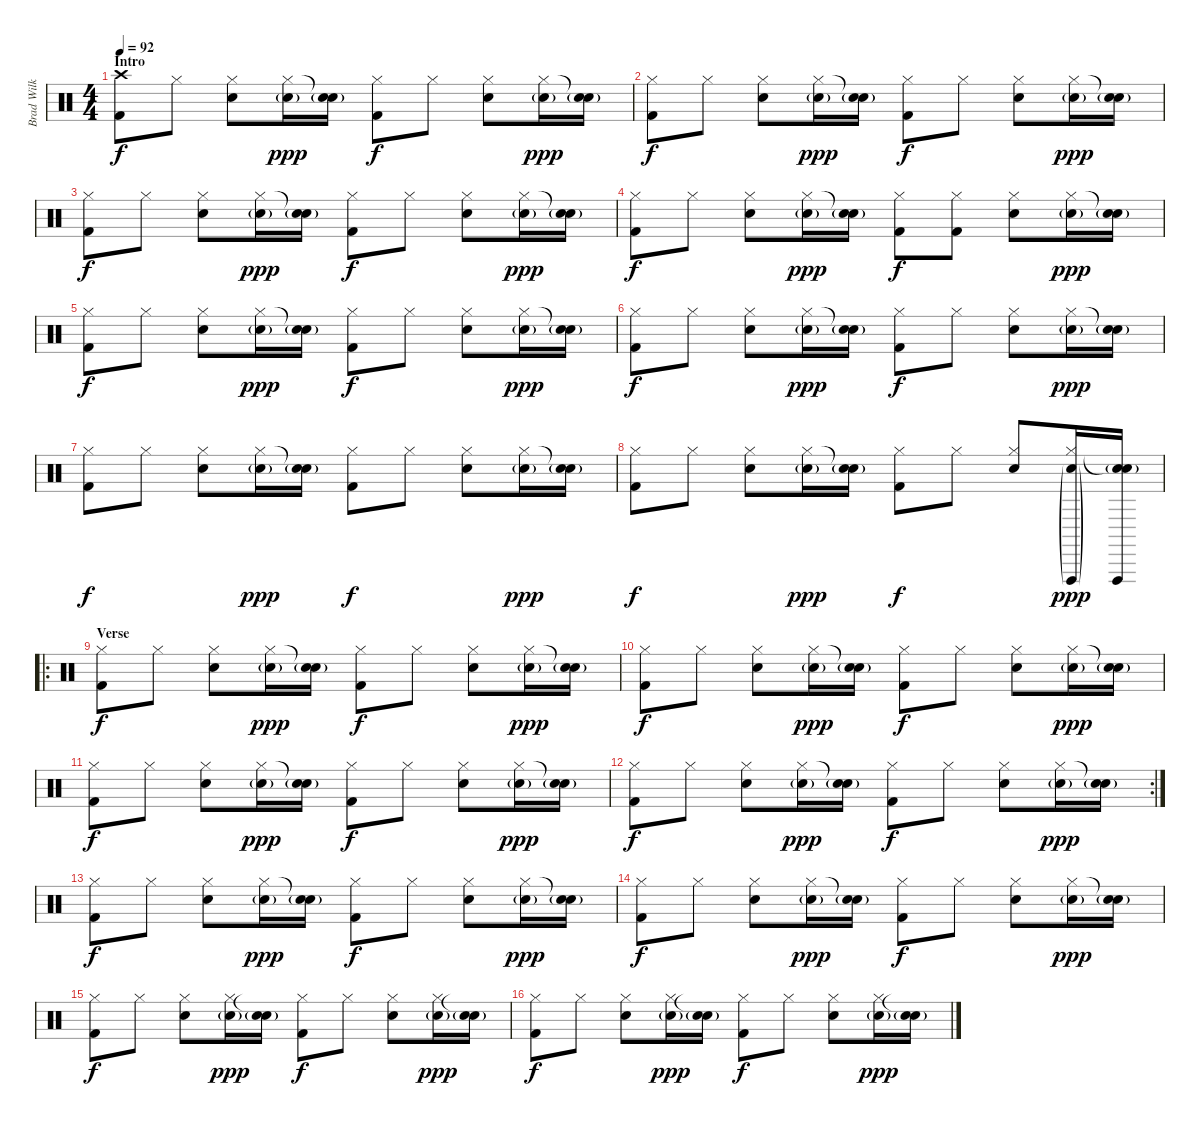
\track ("Brad Wilk" "Brad Wilk") {instrument percussion}
\staff {score}
\articulation defaults
\ts (4 4)
\section ("" "Intro")
\tempo 92
\clef neutral
\ks c
("Crash high (hit)" "Kick (hit) 2").8{dy f} "Hi-Hat (closed)".8 ("Hi-Hat (closed)" "Electric Snare (hit)").8 ("Hi-Hat (closed)" "Electric Snare (hit)"{g}).16{dy ppp} ("Snare (hit)"{t} "Electric Snare (hit)"{g}).16 ("Hi-Hat (closed)" "Kick (hit) 2").8{dy f} "Hi-Hat (closed)".8 ("Hi-Hat (closed)" "Electric Snare (hit)").8 ("Hi-Hat (closed)" "Electric Snare (hit)"{g}).16{dy ppp} ("Snare (hit)"{t} "Electric Snare (hit)"{g}).16 |
("Hi-Hat (closed)" "Kick (hit) 2").8{dy f} "Hi-Hat (closed)".8 ("Hi-Hat (closed)" "Electric Snare (hit)").8 ("Hi-Hat (closed)" "Electric Snare (hit)"{g}).16{dy ppp} ("Snare (hit)"{t} "Electric Snare (hit)"{g}).16 ("Hi-Hat (closed)" "Kick (hit) 2").8{dy f} "Hi-Hat (closed)".8 ("Hi-Hat (closed)" "Electric Snare (hit)").8 ("Hi-Hat (closed)" "Electric Snare (hit)"{g}).16{dy ppp} ("Snare (hit)"{t} "Electric Snare (hit)"{g}).16 |
("Hi-Hat (closed)" "Kick (hit) 2").8{dy f} "Hi-Hat (closed)".8 ("Hi-Hat (closed)" "Electric Snare (hit)").8 ("Hi-Hat (closed)" "Electric Snare (hit)"{g}).16{dy ppp} ("Snare (hit)"{t} "Electric Snare (hit)"{g}).16 ("Hi-Hat (closed)" "Kick (hit) 2").8{dy f} "Hi-Hat (closed)".8 ("Hi-Hat (closed)" "Electric Snare (hit)").8 ("Hi-Hat (closed)" "Electric Snare (hit)"{g}).16{dy ppp} ("Snare (hit)"{t} "Electric Snare (hit)"{g}).16 |
("Hi-Hat (closed)" "Kick (hit) 2").8{dy f} "Hi-Hat (closed)".8 ("Hi-Hat (closed)" "Electric Snare (hit)").8 ("Hi-Hat (closed)" "Electric Snare (hit)"{g}).16{dy ppp} ("Snare (hit)"{t} "Electric Snare (hit)"{g}).16 ("Hi-Hat (closed)" "Kick (hit) 2").8{dy f} ("Hi-Hat (closed)" "Kick (hit) 2").8 ("Hi-Hat (closed)" "Electric Snare (hit)").8 ("Hi-Hat (closed)" "Electric Snare (hit)"{g}).16{dy ppp} ("Snare (hit)"{t} "Electric Snare (hit)"{g}).16 |
("Hi-Hat (closed)" "Kick (hit) 2").8{dy f} "Hi-Hat (closed)".8 ("Hi-Hat (closed)" "Electric Snare (hit)").8 ("Hi-Hat (closed)" "Electric Snare (hit)"{g}).16{dy ppp} ("Snare (hit)"{t} "Electric Snare (hit)"{g}).16 ("Hi-Hat (closed)" "Kick (hit) 2").8{dy f} "Hi-Hat (closed)".8 ("Hi-Hat (closed)" "Electric Snare (hit)").8 ("Hi-Hat (closed)" "Electric Snare (hit)"{g}).16{dy ppp} ("Snare (hit)"{t} "Electric Snare (hit)"{g}).16 |
("Hi-Hat (closed)" "Kick (hit) 2").8{dy f} "Hi-Hat (closed)".8 ("Hi-Hat (closed)" "Electric Snare (hit)").8 ("Hi-Hat (closed)" "Electric Snare (hit)"{g}).16{dy ppp} ("Snare (hit)"{t} "Electric Snare (hit)"{g}).16 ("Hi-Hat (closed)" "Kick (hit) 2").8{dy f} "Hi-Hat (closed)".8 ("Hi-Hat (closed)" "Electric Snare (hit)").8 ("Hi-Hat (closed)" "Electric Snare (hit)"{g}).16{dy ppp} ("Snare (hit)"{t} "Electric Snare (hit)"{g}).16 |
("Hi-Hat (closed)" "Kick (hit) 2").8{dy f} "Hi-Hat (closed)".8 ("Hi-Hat (closed)" "Electric Snare (hit)").8 ("Hi-Hat (closed)" "Electric Snare (hit)"{g}).16{dy ppp} ("Snare (hit)"{t} "Electric Snare (hit)"{g}).16 ("Hi-Hat (closed)" "Kick (hit) 2").8{dy f} "Hi-Hat (closed)".8 ("Hi-Hat (closed)" "Electric Snare (hit)").8 ("Hi-Hat (closed)" "Electric Snare (hit)"{g}).16{dy ppp} ("Snare (hit)"{t} "Electric Snare (hit)"{g}).16 |
("Hi-Hat (closed)" "Kick (hit) 2").8{dy f} "Hi-Hat (closed)".8 ("Hi-Hat (closed)" "Electric Snare (hit)").8 ("Hi-Hat (closed)" "Electric Snare (hit)"{g}).16{dy ppp} ("Snare (hit)"{t} "Electric Snare (hit)"{g}).16 ("Hi-Hat (closed)" "Kick (hit) 2").8{dy f} "Hi-Hat (closed)".8 ("Hi-Hat (closed)" "Electric Snare (hit)").8 ("Hi-Hat (closed)" "Vibraslap (hit)"{g} "Electric Snare (hit)"{g}).16{dy ppp} ("Snare (hit)"{t} "Vibraslap (hit)" "Electric Snare (hit)"{g}).16 |
\ro
\section ("" "Verse")
("Hi-Hat (closed)" "Kick (hit) 2").8{dy f} "Hi-Hat (closed)".8 ("Hi-Hat (closed)" "Electric Snare (hit)").8 ("Hi-Hat (closed)" "Electric Snare (hit)"{g}).16{dy ppp} ("Snare (hit)"{t} "Electric Snare (hit)"{g}).16 ("Hi-Hat (closed)" "Kick (hit) 2").8{dy f} "Hi-Hat (closed)".8 ("Hi-Hat (closed)" "Electric Snare (hit)").8 ("Hi-Hat (closed)" "Electric Snare (hit)"{g}).16{dy ppp} ("Snare (hit)"{t} "Electric Snare (hit)"{g}).16 |
("Hi-Hat (closed)" "Kick (hit) 2").8{dy f} "Hi-Hat (closed)".8 ("Hi-Hat (closed)" "Electric Snare (hit)").8 ("Hi-Hat (closed)" "Electric Snare (hit)"{g}).16{dy ppp} ("Snare (hit)"{t} "Electric Snare (hit)"{g}).16 ("Hi-Hat (closed)" "Kick (hit) 2").8{dy f} "Hi-Hat (closed)".8 ("Hi-Hat (closed)" "Electric Snare (hit)").8 ("Hi-Hat (closed)" "Electric Snare (hit)"{g}).16{dy ppp} ("Snare (hit)"{t} "Electric Snare (hit)"{g}).16 |
("Hi-Hat (closed)" "Kick (hit) 2").8{dy f} "Hi-Hat (closed)".8 ("Hi-Hat (closed)" "Electric Snare (hit)").8 ("Hi-Hat (closed)" "Electric Snare (hit)"{g}).16{dy ppp} ("Snare (hit)"{t} "Electric Snare (hit)"{g}).16 ("Hi-Hat (closed)" "Kick (hit) 2").8{dy f} "Hi-Hat (closed)".8 ("Hi-Hat (closed)" "Electric Snare (hit)").8 ("Hi-Hat (closed)" "Electric Snare (hit)"{g}).16{dy ppp} ("Snare (hit)"{t} "Electric Snare (hit)"{g}).16 |
\rc 2
("Hi-Hat (closed)" "Kick (hit) 2").8{dy f} "Hi-Hat (closed)".8 ("Hi-Hat (closed)" "Electric Snare (hit)").8 ("Hi-Hat (closed)" "Electric Snare (hit)"{g}).16{dy ppp} ("Snare (hit)"{t} "Electric Snare (hit)"{g}).16 ("Hi-Hat (closed)" "Kick (hit) 2").8{dy f} "Hi-Hat (closed)".8 ("Hi-Hat (closed)" "Electric Snare (hit)").8 ("Hi-Hat (closed)" "Electric Snare (hit)"{g}).16{dy ppp} ("Snare (hit)"{t} "Electric Snare (hit)"{g}).16 |
("Hi-Hat (closed)" "Kick (hit) 2").8{dy f} "Hi-Hat (closed)".8 ("Hi-Hat (closed)" "Electric Snare (hit)").8 ("Hi-Hat (closed)" "Electric Snare (hit)"{g}).16{dy ppp} ("Snare (hit)"{t} "Electric Snare (hit)"{g}).16 ("Hi-Hat (closed)" "Kick (hit) 2").8{dy f} "Hi-Hat (closed)".8 ("Hi-Hat (closed)" "Electric Snare (hit)").8 ("Hi-Hat (closed)" "Electric Snare (hit)"{g}).16{dy ppp} ("Snare (hit)"{t} "Electric Snare (hit)"{g}).16 |
("Hi-Hat (closed)" "Kick (hit) 2").8{dy f} "Hi-Hat (closed)".8 ("Hi-Hat (closed)" "Electric Snare (hit)").8 ("Hi-Hat (closed)" "Electric Snare (hit)"{g}).16{dy ppp} ("Snare (hit)"{t} "Electric Snare (hit)"{g}).16 ("Hi-Hat (closed)" "Kick (hit) 2").8{dy f} "Hi-Hat (closed)".8 ("Hi-Hat (closed)" "Electric Snare (hit)").8 ("Hi-Hat (closed)" "Electric Snare (hit)"{g}).16{dy ppp} ("Snare (hit)"{t} "Electric Snare (hit)"{g}).16 |
("Hi-Hat (closed)" "Kick (hit) 2").8{dy f} "Hi-Hat (closed)".8 ("Hi-Hat (closed)" "Electric Snare (hit)").8 ("Hi-Hat (closed)" "Electric Snare (hit)"{g}).16{dy ppp} ("Snare (hit)"{t} "Electric Snare (hit)"{g}).16 ("Hi-Hat (closed)" "Kick (hit) 2").8{dy f} "Hi-Hat (closed)".8 ("Hi-Hat (closed)" "Electric Snare (hit)").8 ("Hi-Hat (closed)" "Electric Snare (hit)"{g}).16{dy ppp} ("Snare (hit)"{t} "Electric Snare (hit)"{g}).16 |
("Hi-Hat (closed)" "Kick (hit) 2").8{dy f} "Hi-Hat (closed)".8 ("Hi-Hat (closed)" "Electric Snare (hit)").8 ("Hi-Hat (closed)" "Electric Snare (hit)"{g}).16{dy ppp} ("Snare (hit)"{t} "Electric Snare (hit)"{g}).16 ("Hi-Hat (closed)" "Kick (hit) 2").8{dy f} "Hi-Hat (closed)".8 ("Hi-Hat (closed)" "Electric Snare (hit)").8 ("Hi-Hat (closed)" "Electric Snare (hit)"{g}).16{dy ppp} ("Snare (hit)"{t} "Electric Snare (hit)"{g}).16
